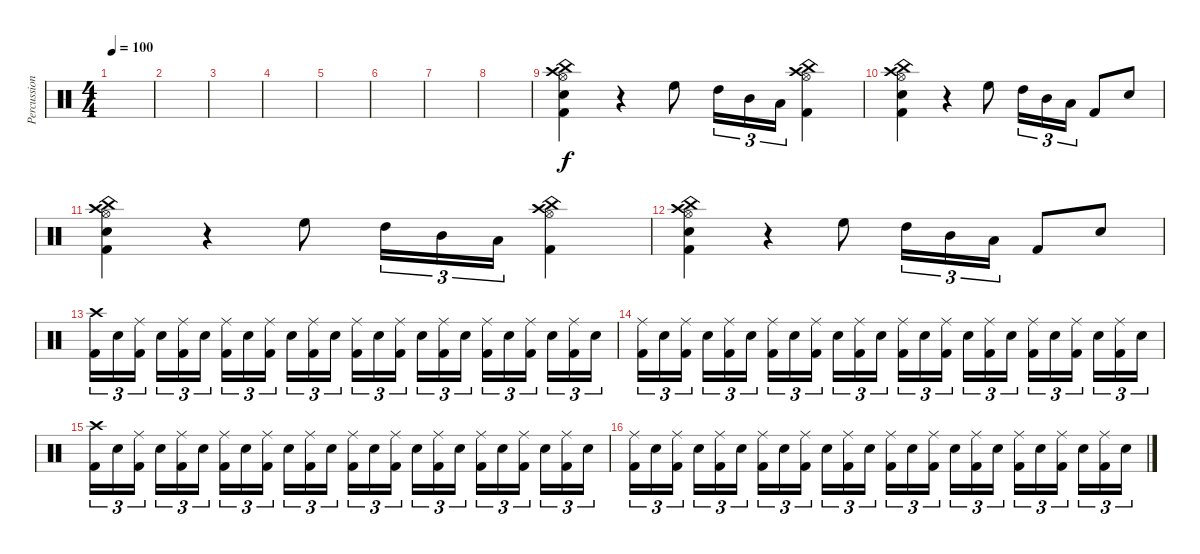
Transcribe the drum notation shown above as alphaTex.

\track ("Percussion" "Percussion") {instrument percussion}
\staff {score}
\articulation defaults
\ts (4 4)
\tempo 100
\clef neutral
\ks c
|
|
|
|
|
|
|
|
("Crash high (hit)" "Hi-Hat (open)" "China (hit)" "Electric Snare (hit)" "Kick (hit) 2").4 r.4 "High Floor Tom (hit)".8 "High Tom (hit)".16{tu (3 2)} "Mid Tom (hit)".16{tu (3 2)} "Low Tom (hit)".16{tu (3 2)} ("Crash high (hit)" "Hi-Hat (open)" "China (hit)" "Kick (hit) 2").4 |
("Crash high (hit)" "Hi-Hat (open)" "China (hit)" "Electric Snare (hit)" "Kick (hit) 2").4 r.4 "High Floor Tom (hit)".8 "High Tom (hit)".16{tu (3 2)} "Mid Tom (hit)".16{tu (3 2)} "Low Tom (hit)".16{tu (3 2)} "Kick (hit) 2".8 "Electric Snare (hit)".8 |
("Crash high (hit)" "Hi-Hat (open)" "China (hit)" "Electric Snare (hit)" "Kick (hit) 2").4 r.4 "High Floor Tom (hit)".8 "High Tom (hit)".16{tu (3 2)} "Mid Tom (hit)".16{tu (3 2)} "Low Tom (hit)".16{tu (3 2)} ("Crash high (hit)" "Hi-Hat (open)" "China (hit)" "Kick (hit) 2").4 |
("Crash high (hit)" "Hi-Hat (open)" "China (hit)" "Electric Snare (hit)" "Kick (hit) 2").4 r.4 "High Floor Tom (hit)".8 "High Tom (hit)".16{tu (3 2)} "Mid Tom (hit)".16{tu (3 2)} "Low Tom (hit)".16{tu (3 2)} "Kick (hit) 2".8 "Electric Snare (hit)".8 |
("Crash high (hit)" "Kick (hit) 2").16{tu (3 2)} "Electric Snare (hit)".16{tu (3 2)} ("Ride (middle)" "Kick (hit) 2").16{tu (3 2)} "Electric Snare (hit)".16{tu (3 2)} ("Ride (middle)" "Kick (hit) 2").16{tu (3 2)} "Electric Snare (hit)".16{tu (3 2)} ("Ride (middle)" "Kick (hit) 2").16{tu (3 2)} "Electric Snare (hit)".16{tu (3 2)} ("Ride (middle)" "Kick (hit) 2").16{tu (3 2)} "Electric Snare (hit)".16{tu (3 2)} ("Ride (middle)" "Kick (hit) 2").16{tu (3 2)} "Electric Snare (hit)".16{tu (3 2)} ("Ride (middle)" "Kick (hit) 2").16{tu (3 2)} "Electric Snare (hit)".16{tu (3 2)} ("Ride (middle)" "Kick (hit) 2").16{tu (3 2)} "Electric Snare (hit)".16{tu (3 2)} ("Ride (middle)" "Kick (hit) 2").16{tu (3 2)} "Electric Snare (hit)".16{tu (3 2)} ("Ride (middle)" "Kick (hit) 2").16{tu (3 2)} "Electric Snare (hit)".16{tu (3 2)} ("Ride (middle)" "Kick (hit) 2").16{tu (3 2)} "Electric Snare (hit)".16{tu (3 2)} ("Ride (middle)" "Kick (hit) 2").16{tu (3 2)} "Electric Snare (hit)".16{tu (3 2)} |
("Ride (middle)" "Kick (hit) 2").16{tu (3 2)} "Electric Snare (hit)".16{tu (3 2)} ("Ride (middle)" "Kick (hit) 2").16{tu (3 2)} "Electric Snare (hit)".16{tu (3 2)} ("Ride (middle)" "Kick (hit) 2").16{tu (3 2)} "Electric Snare (hit)".16{tu (3 2)} ("Ride (middle)" "Kick (hit) 2").16{tu (3 2)} "Electric Snare (hit)".16{tu (3 2)} ("Ride (middle)" "Kick (hit) 2").16{tu (3 2)} "Electric Snare (hit)".16{tu (3 2)} ("Ride (middle)" "Kick (hit) 2").16{tu (3 2)} "Electric Snare (hit)".16{tu (3 2)} ("Ride (middle)" "Kick (hit) 2").16{tu (3 2)} "Electric Snare (hit)".16{tu (3 2)} ("Ride (middle)" "Kick (hit) 2").16{tu (3 2)} "Electric Snare (hit)".16{tu (3 2)} ("Ride (middle)" "Kick (hit) 2").16{tu (3 2)} "Electric Snare (hit)".16{tu (3 2)} ("Ride (middle)" "Kick (hit) 2").16{tu (3 2)} "Electric Snare (hit)".16{tu (3 2)} ("Ride (middle)" "Kick (hit) 2").16{tu (3 2)} "Electric Snare (hit)".16{tu (3 2)} ("Ride (middle)" "Kick (hit) 2").16{tu (3 2)} "Electric Snare (hit)".16{tu (3 2)} |
("Crash high (hit)" "Kick (hit) 2").16{tu (3 2)} "Electric Snare (hit)".16{tu (3 2)} ("Ride (middle)" "Kick (hit) 2").16{tu (3 2)} "Electric Snare (hit)".16{tu (3 2)} ("Ride (middle)" "Kick (hit) 2").16{tu (3 2)} "Electric Snare (hit)".16{tu (3 2)} ("Ride (middle)" "Kick (hit) 2").16{tu (3 2)} "Electric Snare (hit)".16{tu (3 2)} ("Ride (middle)" "Kick (hit) 2").16{tu (3 2)} "Electric Snare (hit)".16{tu (3 2)} ("Ride (middle)" "Kick (hit) 2").16{tu (3 2)} "Electric Snare (hit)".16{tu (3 2)} ("Ride (middle)" "Kick (hit) 2").16{tu (3 2)} "Electric Snare (hit)".16{tu (3 2)} ("Ride (middle)" "Kick (hit) 2").16{tu (3 2)} "Electric Snare (hit)".16{tu (3 2)} ("Ride (middle)" "Kick (hit) 2").16{tu (3 2)} "Electric Snare (hit)".16{tu (3 2)} ("Ride (middle)" "Kick (hit) 2").16{tu (3 2)} "Electric Snare (hit)".16{tu (3 2)} ("Ride (middle)" "Kick (hit) 2").16{tu (3 2)} "Electric Snare (hit)".16{tu (3 2)} ("Ride (middle)" "Kick (hit) 2").16{tu (3 2)} "Electric Snare (hit)".16{tu (3 2)} |
("Ride (middle)" "Kick (hit) 2").16{tu (3 2)} "Electric Snare (hit)".16{tu (3 2)} ("Ride (middle)" "Kick (hit) 2").16{tu (3 2)} "Electric Snare (hit)".16{tu (3 2)} ("Ride (middle)" "Kick (hit) 2").16{tu (3 2)} "Electric Snare (hit)".16{tu (3 2)} ("Ride (middle)" "Kick (hit) 2").16{tu (3 2)} "Electric Snare (hit)".16{tu (3 2)} ("Ride (middle)" "Kick (hit) 2").16{tu (3 2)} "Electric Snare (hit)".16{tu (3 2)} ("Ride (middle)" "Kick (hit) 2").16{tu (3 2)} "Electric Snare (hit)".16{tu (3 2)} ("Ride (middle)" "Kick (hit) 2").16{tu (3 2)} "Electric Snare (hit)".16{tu (3 2)} ("Ride (middle)" "Kick (hit) 2").16{tu (3 2)} "Electric Snare (hit)".16{tu (3 2)} ("Ride (middle)" "Kick (hit) 2").16{tu (3 2)} "Electric Snare (hit)".16{tu (3 2)} ("Ride (middle)" "Kick (hit) 2").16{tu (3 2)} "Electric Snare (hit)".16{tu (3 2)} ("Ride (middle)" "Kick (hit) 2").16{tu (3 2)} "Electric Snare (hit)".16{tu (3 2)} ("Ride (middle)" "Kick (hit) 2").16{tu (3 2)} "Electric Snare (hit)".16{tu (3 2)}
